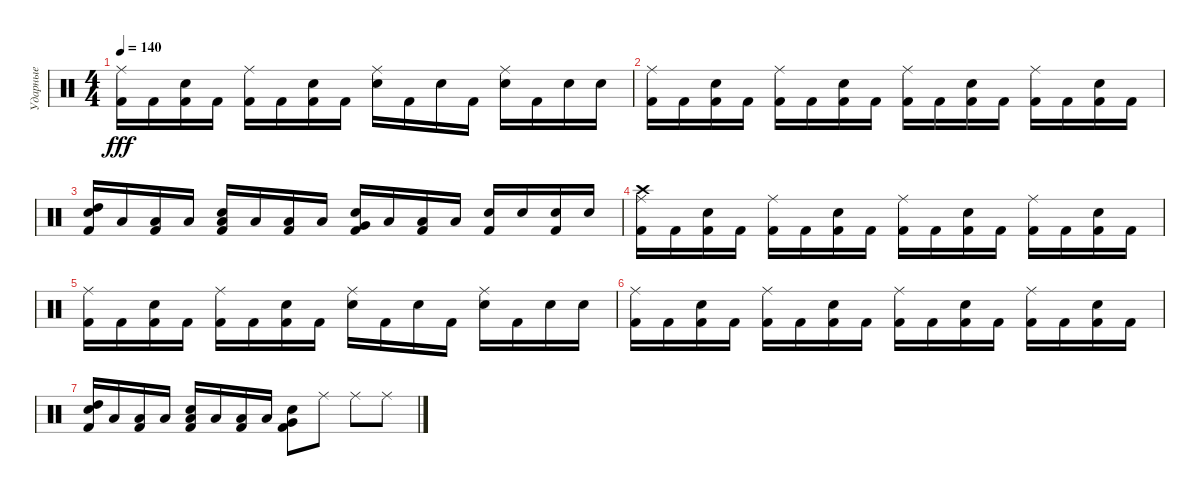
\track ("Ударные" "Ударные") {instrument percussion}
\staff {score}
\articulation defaults
\ts (4 4)
\tempo 140
\clef neutral
\ks c
("Kick (hit) 2" "Ride (middle)").16{dy fff} "Kick (hit) 2".16 ("Kick (hit) 2" "Snare (hit) 2").16 "Kick (hit) 2".16 ("Kick (hit) 2" "Ride (middle)").16 "Kick (hit) 2".16 ("Kick (hit) 2" "Snare (hit) 2").16 "Kick (hit) 2".16 ("Snare (hit) 2" "Ride (middle)").16 "Kick (hit) 2".16 "Snare (hit) 2".16 "Kick (hit) 2".16 ("Snare (hit) 2" "Ride (middle)").16 "Kick (hit) 2".16 "Snare (hit) 2".16 "Snare (hit) 2".16 |
("Kick (hit) 2" "Ride (middle)").16 "Kick (hit) 2".16 ("Kick (hit) 2" "Snare (hit) 2").16 "Kick (hit) 2".16 ("Kick (hit) 2" "Ride (middle)").16 "Kick (hit) 2".16 ("Kick (hit) 2" "Snare (hit) 2").16 "Kick (hit) 2".16 ("Kick (hit) 2" "Ride (middle)").16 "Kick (hit) 2".16 ("Kick (hit) 2" "Snare (hit) 2").16 "Kick (hit) 2".16 ("Kick (hit) 2" "Ride (middle)").16 "Kick (hit) 2".16 ("Kick (hit) 2" "Snare (hit) 2").16 "Kick (hit) 2".16 |
("High Tom (hit)" "Snare (hit) 2" "Kick (hit) 2").16 "Low Floor Tom (hit)".16 ("Low Floor Tom (hit)" "Kick (hit) 2").16 "Low Floor Tom (hit)".16 ("Low Tom (hit)" "Snare (hit) 2" "Kick (hit) 2").16 "Low Floor Tom (hit)".16 ("Low Floor Tom (hit)" "Kick (hit) 2").16 "Low Floor Tom (hit)".16 ("Very Low Tom (hit)" "Snare (hit) 2" "Kick (hit) 2").16 "Low Floor Tom (hit)".16 ("Low Floor Tom (hit)" "Kick (hit) 2").16 "Low Floor Tom (hit)".16 ("Snare (hit) 2" "Kick (hit) 2").16 "Snare (hit) 2".16 ("Snare (hit) 2" "Kick (hit) 2").16 "Snare (hit) 2".16 |
("Kick (hit) 2" "Ride (middle)" "Crash high (hit)").16 "Kick (hit) 2".16 ("Kick (hit) 2" "Snare (hit) 2").16 "Kick (hit) 2".16 ("Kick (hit) 2" "Ride (middle)").16 "Kick (hit) 2".16 ("Kick (hit) 2" "Snare (hit) 2").16 "Kick (hit) 2".16 ("Kick (hit) 2" "Ride (middle)").16 "Kick (hit) 2".16 ("Kick (hit) 2" "Snare (hit) 2").16 "Kick (hit) 2".16 ("Kick (hit) 2" "Ride (middle)").16 "Kick (hit) 2".16 ("Kick (hit) 2" "Snare (hit) 2").16 "Kick (hit) 2".16 |
("Kick (hit) 2" "Ride (middle)").16 "Kick (hit) 2".16 ("Kick (hit) 2" "Snare (hit) 2").16 "Kick (hit) 2".16 ("Kick (hit) 2" "Ride (middle)").16 "Kick (hit) 2".16 ("Kick (hit) 2" "Snare (hit) 2").16 "Kick (hit) 2".16 ("Snare (hit) 2" "Ride (middle)").16 "Kick (hit) 2".16 "Snare (hit) 2".16 "Kick (hit) 2".16 ("Snare (hit) 2" "Ride (middle)").16 "Kick (hit) 2".16 "Snare (hit) 2".16 "Snare (hit) 2".16 |
("Kick (hit) 2" "Ride (middle)").16 "Kick (hit) 2".16 ("Kick (hit) 2" "Snare (hit) 2").16 "Kick (hit) 2".16 ("Kick (hit) 2" "Ride (middle)").16 "Kick (hit) 2".16 ("Kick (hit) 2" "Snare (hit) 2").16 "Kick (hit) 2".16 ("Kick (hit) 2" "Ride (middle)").16 "Kick (hit) 2".16 ("Kick (hit) 2" "Snare (hit) 2").16 "Kick (hit) 2".16 ("Kick (hit) 2" "Ride (middle)").16 "Kick (hit) 2".16 ("Kick (hit) 2" "Snare (hit) 2").16 "Kick (hit) 2".16 |
("High Tom (hit)" "Snare (hit) 2" "Kick (hit) 2").16 "Low Floor Tom (hit)".16 ("Low Floor Tom (hit)" "Kick (hit) 2").16 "Low Floor Tom (hit)".16 ("Low Tom (hit)" "Snare (hit) 2" "Kick (hit) 2").16 "Low Floor Tom (hit)".16 ("Low Floor Tom (hit)" "Kick (hit) 2").16 "Low Floor Tom (hit)".16 ("Very Low Tom (hit)" "Snare (hit) 2" "Kick (hit) 2").8 "Ride (middle)".8 "Ride (middle)".8 "Ride (middle)".8
